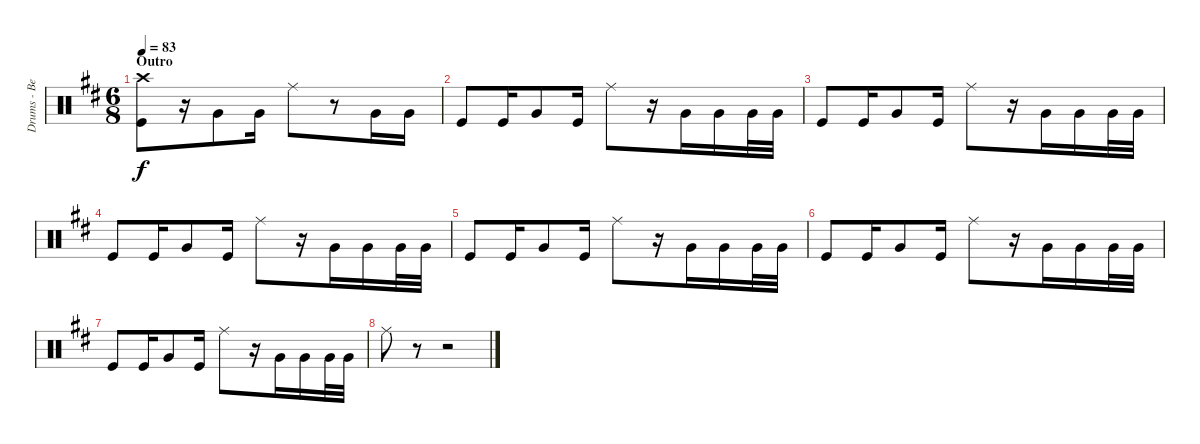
\track ("Drums - Ben Johnston" "Drums - Be") {instrument percussion}
\staff {score}
\articulation defaults
\ts (6 8)
\section ("" "Outro")
\tempo 83
\clef neutral
\ks d
("Crash high (hit)" "Kick (hit)").8{dy f} r.16 "Very Low Tom (hit)".8 "Very Low Tom (hit)".16 "Ride (middle)".8 r.8 "Very Low Tom (hit)".16 "Very Low Tom (hit)".16 |
"Kick (hit)".8 "Kick (hit)".16 "Very Low Tom (hit)".8 "Kick (hit)".16 "Ride (middle)".8 r.16 "Very Low Tom (hit)".16 "Very Low Tom (hit)".16 "Very Low Tom (hit)".32 "Very Low Tom (hit)".32 |
"Kick (hit)".8 "Kick (hit)".16 "Very Low Tom (hit)".8 "Kick (hit)".16 "Ride (middle)".8 r.16 "Very Low Tom (hit)".16 "Very Low Tom (hit)".16 "Very Low Tom (hit)".32 "Very Low Tom (hit)".32 |
"Kick (hit)".8 "Kick (hit)".16 "Very Low Tom (hit)".8 "Kick (hit)".16 "Ride (middle)".8 r.16 "Very Low Tom (hit)".16 "Very Low Tom (hit)".16 "Very Low Tom (hit)".32 "Very Low Tom (hit)".32 |
"Kick (hit)".8 "Kick (hit)".16 "Very Low Tom (hit)".8 "Kick (hit)".16 "Ride (middle)".8 r.16 "Very Low Tom (hit)".16 "Very Low Tom (hit)".16 "Very Low Tom (hit)".32 "Very Low Tom (hit)".32 |
"Kick (hit)".8 "Kick (hit)".16 "Very Low Tom (hit)".8 "Kick (hit)".16 "Ride (middle)".8 r.16 "Very Low Tom (hit)".16 "Very Low Tom (hit)".16 "Very Low Tom (hit)".32 "Very Low Tom (hit)".32 |
"Kick (hit)".8 "Kick (hit)".16 "Very Low Tom (hit)".8 "Kick (hit)".16 "Ride (middle)".8 r.16 "Very Low Tom (hit)".16 "Very Low Tom (hit)".16 "Very Low Tom (hit)".32 "Very Low Tom (hit)".32 |
"Ride (middle)".8 r.8 r.2
